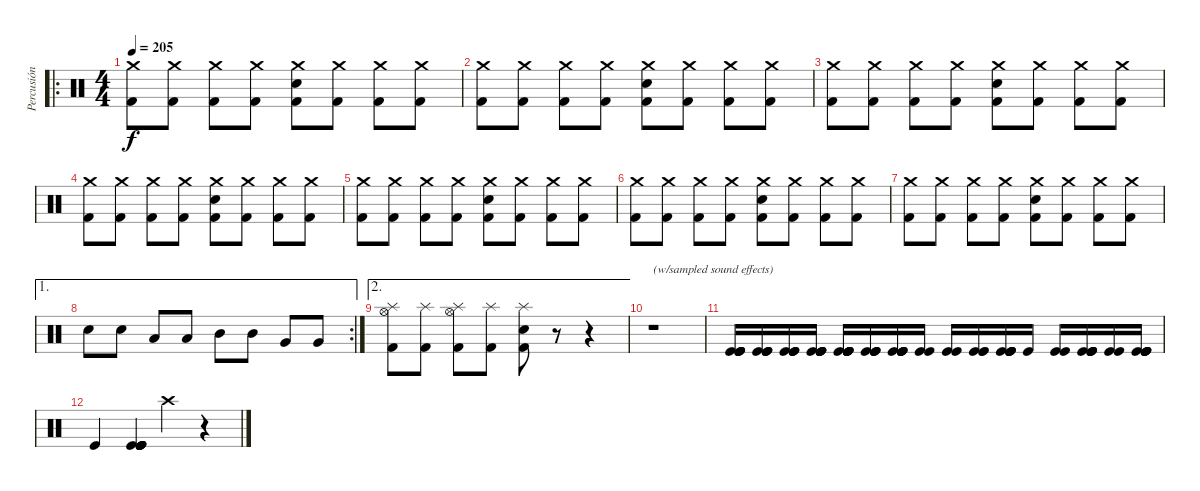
\track ("Percusión" "Percusión") {instrument percussion}
\staff {score}
\articulation defaults
\ro
\ts (4 4)
\tempo 205
\clef neutral
\ks c
("Kick (hit) 2" "Crash medium (hit)").8{dy f} ("Kick (hit) 2" "Crash medium (hit)").8 ("Kick (hit) 2" "Crash medium (hit)").8 ("Kick (hit) 2" "Crash medium (hit)").8 ("Kick (hit) 2" "Electric Snare (hit)" "Crash medium (hit)").8 ("Kick (hit) 2" "Crash medium (hit)").8 ("Kick (hit) 2" "Crash medium (hit)").8 ("Kick (hit) 2" "Crash medium (hit)").8 |
("Kick (hit) 2" "Crash medium (hit)").8 ("Kick (hit) 2" "Crash medium (hit)").8 ("Kick (hit) 2" "Crash medium (hit)").8 ("Kick (hit) 2" "Crash medium (hit)").8 ("Kick (hit) 2" "Electric Snare (hit)" "Crash medium (hit)").8 ("Kick (hit) 2" "Crash medium (hit)").8 ("Kick (hit) 2" "Crash medium (hit)").8 ("Kick (hit) 2" "Crash medium (hit)").8 |
("Kick (hit) 2" "Crash medium (hit)").8 ("Kick (hit) 2" "Crash medium (hit)").8 ("Kick (hit) 2" "Crash medium (hit)").8 ("Kick (hit) 2" "Crash medium (hit)").8 ("Kick (hit) 2" "Electric Snare (hit)" "Crash medium (hit)").8 ("Kick (hit) 2" "Crash medium (hit)").8 ("Kick (hit) 2" "Crash medium (hit)").8 ("Kick (hit) 2" "Crash medium (hit)").8 |
("Kick (hit) 2" "Crash medium (hit)").8 ("Kick (hit) 2" "Crash medium (hit)").8 ("Kick (hit) 2" "Crash medium (hit)").8 ("Kick (hit) 2" "Crash medium (hit)").8 ("Kick (hit) 2" "Electric Snare (hit)" "Crash medium (hit)").8 ("Kick (hit) 2" "Crash medium (hit)").8 ("Kick (hit) 2" "Crash medium (hit)").8 ("Kick (hit) 2" "Crash medium (hit)").8 |
("Kick (hit) 2" "Crash medium (hit)").8 ("Kick (hit) 2" "Crash medium (hit)").8 ("Kick (hit) 2" "Crash medium (hit)").8 ("Kick (hit) 2" "Crash medium (hit)").8 ("Kick (hit) 2" "Electric Snare (hit)" "Crash medium (hit)").8 ("Kick (hit) 2" "Crash medium (hit)").8 ("Kick (hit) 2" "Crash medium (hit)").8 ("Kick (hit) 2" "Crash medium (hit)").8 |
("Kick (hit) 2" "Crash medium (hit)").8 ("Kick (hit) 2" "Crash medium (hit)").8 ("Kick (hit) 2" "Crash medium (hit)").8 ("Kick (hit) 2" "Crash medium (hit)").8 ("Kick (hit) 2" "Electric Snare (hit)" "Crash medium (hit)").8 ("Kick (hit) 2" "Crash medium (hit)").8 ("Kick (hit) 2" "Crash medium (hit)").8 ("Kick (hit) 2" "Crash medium (hit)").8 |
("Kick (hit) 2" "Crash medium (hit)").8 ("Kick (hit) 2" "Crash medium (hit)").8 ("Kick (hit) 2" "Crash medium (hit)").8 ("Kick (hit) 2" "Crash medium (hit)").8 ("Kick (hit) 2" "Electric Snare (hit)" "Crash medium (hit)").8 ("Kick (hit) 2" "Crash medium (hit)").8 ("Kick (hit) 2" "Crash medium (hit)").8 ("Kick (hit) 2" "Crash medium (hit)").8 |
\ae 1
\rc 2 "Electric Snare (hit)".8 "Electric Snare (hit)".8 "Low Tom (hit)".8 "Low Tom (hit)".8 "Mid Tom (hit)".8 "Mid Tom (hit)".8 "Very Low Tom (hit)".8 "Very Low Tom (hit)".8
|
\ae 2
("Kick (hit) 2" "Hi-Hat (open)" "Splash (hit)").8 ("Kick (hit) 2" "Splash (hit)").8 ("Kick (hit) 2" "Hi-Hat (open)" "Splash (hit)").8 ("Kick (hit) 2" "Splash (hit)").8 ("Kick (hit) 2" "Splash (hit)" "Electric Snare (hit)").8 r.8 r.4 |
r.1{txt "(w/sampled sound effects)"} |
("Kick (hit)" "Kick (hit)" "Kick (hit)" "Kick (hit)" "Kick (hit)").16 ("Kick (hit)" "Kick (hit)" "Kick (hit)" "Kick (hit)").16 ("Kick (hit)" "Kick (hit)" "Kick (hit)" "Kick (hit)").16 ("Kick (hit)" "Kick (hit)" "Kick (hit)" "Kick (hit)" "Kick (hit)").16 ("Kick (hit)" "Kick (hit)" "Kick (hit)" "Kick (hit)" "Kick (hit)" "Kick (hit)").16 ("Kick (hit)" "Kick (hit)" "Kick (hit)" "Kick (hit)").16 ("Kick (hit)" "Kick (hit)" "Kick (hit)" "Kick (hit)" "Kick (hit)").16 ("Kick (hit)" "Kick (hit)").16 ("Kick (hit)" "Kick (hit)").16 ("Kick (hit)" "Kick (hit)" "Kick (hit)").16 ("Kick (hit)" "Kick (hit)" "Kick (hit)" "Kick (hit)" "Kick (hit)").16 "Kick (hit)".16 ("Kick (hit)" "Kick (hit)").16 ("Kick (hit)" "Kick (hit)" "Kick (hit)" "Kick (hit)" "Kick (hit)").16 ("Kick (hit)" "Kick (hit)").16 ("Kick (hit)" "Kick (hit)" "Kick (hit)" "Kick (hit)" "Kick (hit)").16 |
"Kick (hit)".4 ("Kick (hit)" "Kick (hit)" "Kick (hit)" "Kick (hit)" "Kick (hit)" "Kick (hit)").4 "Crash high (hit)".4 r.4
